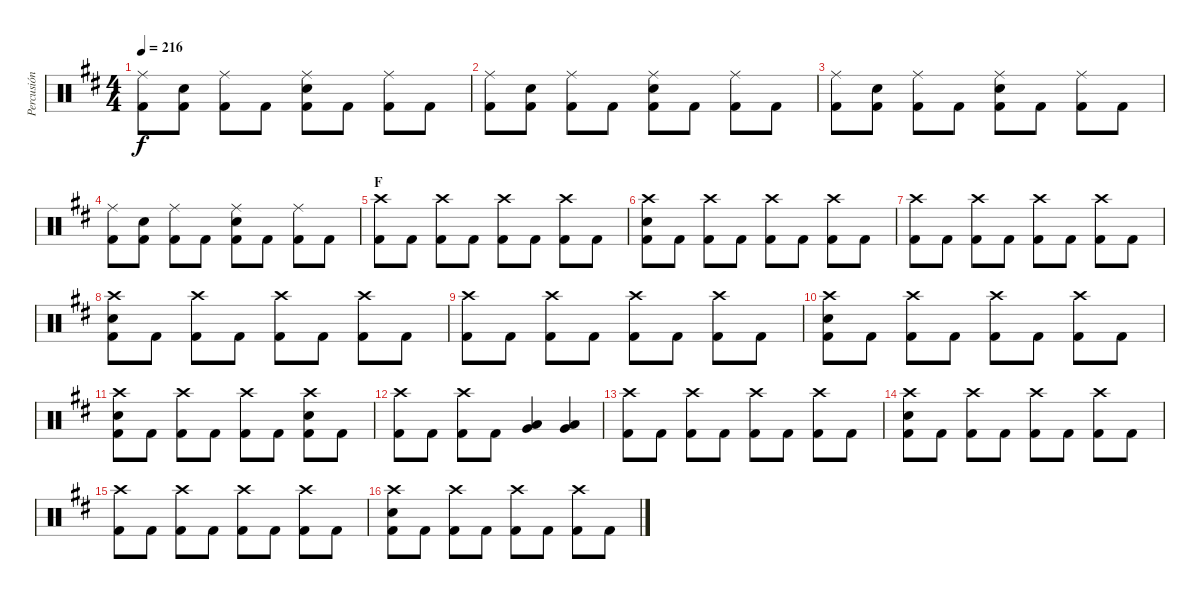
\track ("Percusión" "Percusión") {instrument percussion}
\staff {score}
\articulation defaults
\ts (4 4)
\tempo 216
\clef neutral
\ks d
("Ride (middle)" "Kick (hit) 2").8{dy f} ("Electric Snare (hit)" "Kick (hit) 2").8 ("Ride (middle)" "Kick (hit) 2").8 "Kick (hit) 2".8 ("Ride (middle)" "Electric Snare (hit)" "Kick (hit) 2").8 "Kick (hit) 2".8 ("Ride (middle)" "Kick (hit) 2").8 "Kick (hit) 2".8 |
("Ride (middle)" "Kick (hit) 2").8 ("Electric Snare (hit)" "Kick (hit) 2").8 ("Ride (middle)" "Kick (hit) 2").8 "Kick (hit) 2".8 ("Ride (middle)" "Electric Snare (hit)" "Kick (hit) 2").8 "Kick (hit) 2".8 ("Ride (middle)" "Kick (hit) 2").8 "Kick (hit) 2".8 |
("Ride (middle)" "Kick (hit) 2").8 ("Electric Snare (hit)" "Kick (hit) 2").8 ("Ride (middle)" "Kick (hit) 2").8 "Kick (hit) 2".8 ("Ride (middle)" "Electric Snare (hit)" "Kick (hit) 2").8 "Kick (hit) 2".8 ("Ride (middle)" "Kick (hit) 2").8 "Kick (hit) 2".8 |
("Ride (middle)" "Kick (hit) 2").8 ("Electric Snare (hit)" "Kick (hit) 2").8 ("Ride (middle)" "Kick (hit) 2").8 "Kick (hit) 2".8 ("Ride (middle)" "Electric Snare (hit)" "Kick (hit) 2").8 "Kick (hit) 2".8 ("Ride (middle)" "Kick (hit) 2").8 "Kick (hit) 2".8 |
\section ("" "F")
("Crash high (hit)" "Kick (hit) 2").8 "Kick (hit) 2".8 ("Crash high (hit)" "Kick (hit) 2").8 "Kick (hit) 2".8 ("Crash high (hit)" "Kick (hit) 2").8 "Kick (hit) 2".8 ("Crash high (hit)" "Kick (hit) 2").8 "Kick (hit) 2".8 |
("Crash high (hit)" "Electric Snare (hit)" "Kick (hit) 2").8 "Kick (hit) 2".8 ("Crash high (hit)" "Kick (hit) 2").8 "Kick (hit) 2".8 ("Crash high (hit)" "Kick (hit) 2").8 "Kick (hit) 2".8 ("Crash high (hit)" "Kick (hit) 2").8 "Kick (hit) 2".8 |
("Crash high (hit)" "Kick (hit) 2").8 "Kick (hit) 2".8 ("Crash high (hit)" "Kick (hit) 2").8 "Kick (hit) 2".8 ("Crash high (hit)" "Kick (hit) 2").8 "Kick (hit) 2".8 ("Crash high (hit)" "Kick (hit) 2").8 "Kick (hit) 2".8 |
("Crash high (hit)" "Electric Snare (hit)" "Kick (hit) 2").8 "Kick (hit) 2".8 ("Crash high (hit)" "Kick (hit) 2").8 "Kick (hit) 2".8 ("Crash high (hit)" "Kick (hit) 2").8 "Kick (hit) 2".8 ("Crash high (hit)" "Kick (hit) 2").8 "Kick (hit) 2".8 |
("Crash high (hit)" "Kick (hit) 2").8 "Kick (hit) 2".8 ("Crash high (hit)" "Kick (hit) 2").8 "Kick (hit) 2".8 ("Crash high (hit)" "Kick (hit) 2").8 "Kick (hit) 2".8 ("Crash high (hit)" "Kick (hit) 2").8 "Kick (hit) 2".8 |
("Crash high (hit)" "Electric Snare (hit)" "Kick (hit) 2").8 "Kick (hit) 2".8 ("Crash high (hit)" "Kick (hit) 2").8 "Kick (hit) 2".8 ("Crash high (hit)" "Kick (hit) 2").8 "Kick (hit) 2".8 ("Crash high (hit)" "Kick (hit) 2").8 "Kick (hit) 2".8 |
("Crash high (hit)" "Electric Snare (hit)" "Kick (hit) 2").8 "Kick (hit) 2".8 ("Crash high (hit)" "Kick (hit) 2").8 "Kick (hit) 2".8 ("Crash high (hit)" "Kick (hit) 2").8 "Kick (hit) 2".8 ("Crash high (hit)" "Electric Snare (hit)" "Kick (hit) 2").8 "Kick (hit) 2".8 |
("Crash high (hit)" "Kick (hit) 2").8 "Kick (hit) 2".8 ("Crash high (hit)" "Kick (hit) 2").8 "Kick (hit) 2".8 ("Low Tom (hit)" "Very Low Tom (hit)").4 ("Low Tom (hit)" "Very Low Tom (hit)").4 |
("Crash high (hit)" "Kick (hit) 2").8 "Kick (hit) 2".8 ("Crash high (hit)" "Kick (hit) 2").8 "Kick (hit) 2".8 ("Crash high (hit)" "Kick (hit) 2").8 "Kick (hit) 2".8 ("Crash high (hit)" "Kick (hit) 2").8 "Kick (hit) 2".8 |
("Crash high (hit)" "Electric Snare (hit)" "Kick (hit) 2").8 "Kick (hit) 2".8 ("Crash high (hit)" "Kick (hit) 2").8 "Kick (hit) 2".8 ("Crash high (hit)" "Kick (hit) 2").8 "Kick (hit) 2".8 ("Crash high (hit)" "Kick (hit) 2").8 "Kick (hit) 2".8 |
("Crash high (hit)" "Kick (hit) 2").8 "Kick (hit) 2".8 ("Crash high (hit)" "Kick (hit) 2").8 "Kick (hit) 2".8 ("Crash high (hit)" "Kick (hit) 2").8 "Kick (hit) 2".8 ("Crash high (hit)" "Kick (hit) 2").8 "Kick (hit) 2".8 |
("Crash high (hit)" "Electric Snare (hit)" "Kick (hit) 2").8 "Kick (hit) 2".8 ("Crash high (hit)" "Kick (hit) 2").8 "Kick (hit) 2".8 ("Crash high (hit)" "Kick (hit) 2").8 "Kick (hit) 2".8 ("Crash high (hit)" "Kick (hit) 2").8 "Kick (hit) 2".8
